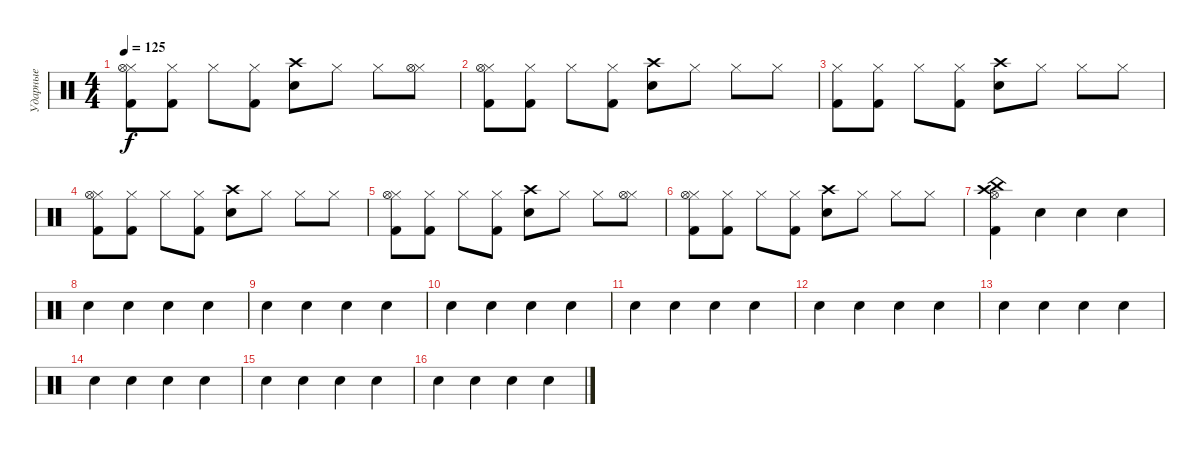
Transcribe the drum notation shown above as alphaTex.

\track ("Ударные" "Ударные") {instrument percussion}
\staff {score}
\articulation defaults
\ts (4 4)
\tempo 125
\clef neutral
\ks c
("Kick (hit) 2" "Hi-Hat (closed)" "Hi-Hat (open)").8{dy f} ("Kick (hit) 2" "Hi-Hat (closed)").8 "Hi-Hat (closed)".8 ("Kick (hit) 2" "Hi-Hat (closed)").8 ("Electric Snare (hit)" "Crash high (hit)").8 "Hi-Hat (closed)".8 "Hi-Hat (closed)".8 ("Hi-Hat (closed)" "Hi-Hat (open)").8 |
("Kick (hit) 2" "Hi-Hat (closed)" "Hi-Hat (open)").8 ("Kick (hit) 2" "Hi-Hat (closed)").8 "Hi-Hat (closed)".8 ("Kick (hit) 2" "Hi-Hat (closed)").8 ("Electric Snare (hit)" "Crash high (hit)").8 "Hi-Hat (closed)".8 "Hi-Hat (closed)".8 "Hi-Hat (closed)".8 |
("Kick (hit) 2" "Hi-Hat (closed)").8 ("Kick (hit) 2" "Hi-Hat (closed)").8 "Hi-Hat (closed)".8 ("Kick (hit) 2" "Hi-Hat (closed)").8 ("Electric Snare (hit)" "Crash high (hit)").8 "Hi-Hat (closed)".8 "Hi-Hat (closed)".8 "Hi-Hat (closed)".8 |
("Kick (hit) 2" "Hi-Hat (closed)" "Hi-Hat (open)").8 ("Kick (hit) 2" "Hi-Hat (closed)").8 "Hi-Hat (closed)".8 ("Kick (hit) 2" "Hi-Hat (closed)").8 ("Electric Snare (hit)" "Crash high (hit)").8 "Hi-Hat (closed)".8 "Hi-Hat (closed)".8 "Hi-Hat (closed)".8 |
("Kick (hit) 2" "Hi-Hat (closed)" "Hi-Hat (open)").8 ("Kick (hit) 2" "Hi-Hat (closed)").8 "Hi-Hat (closed)".8 ("Kick (hit) 2" "Hi-Hat (closed)").8 ("Electric Snare (hit)" "Crash high (hit)").8 "Hi-Hat (closed)".8 "Hi-Hat (closed)".8 ("Hi-Hat (closed)" "Hi-Hat (open)").8 |
("Kick (hit) 2" "Hi-Hat (closed)" "Hi-Hat (open)").8 ("Kick (hit) 2" "Hi-Hat (closed)").8 "Hi-Hat (closed)".8 ("Kick (hit) 2" "Hi-Hat (closed)").8 ("Electric Snare (hit)" "Crash high (hit)").8 "Hi-Hat (closed)".8 "Hi-Hat (closed)".8 "Hi-Hat (closed)".8 |
("Hi-Hat (open)" "Crash high (hit)" "China (hit)" "Kick (hit) 2").4 "Hand Clap (hit)".4 "Hand Clap (hit)".4 "Hand Clap (hit)".4 |
"Hand Clap (hit)".4 "Hand Clap (hit)".4 "Hand Clap (hit)".4 "Hand Clap (hit)".4 |
"Hand Clap (hit)".4 "Hand Clap (hit)".4 "Hand Clap (hit)".4 "Hand Clap (hit)".4 |
"Hand Clap (hit)".4 "Hand Clap (hit)".4 "Hand Clap (hit)".4 "Hand Clap (hit)".4 |
"Hand Clap (hit)".4 "Hand Clap (hit)".4 "Hand Clap (hit)".4 "Hand Clap (hit)".4 |
"Hand Clap (hit)".4 "Hand Clap (hit)".4 "Hand Clap (hit)".4 "Hand Clap (hit)".4 |
"Hand Clap (hit)".4 "Hand Clap (hit)".4 "Hand Clap (hit)".4 "Hand Clap (hit)".4 |
"Hand Clap (hit)".4 "Hand Clap (hit)".4 "Hand Clap (hit)".4 "Hand Clap (hit)".4 |
"Hand Clap (hit)".4 "Hand Clap (hit)".4 "Hand Clap (hit)".4 "Hand Clap (hit)".4 |
"Hand Clap (hit)".4 "Hand Clap (hit)".4 "Hand Clap (hit)".4 "Hand Clap (hit)".4
